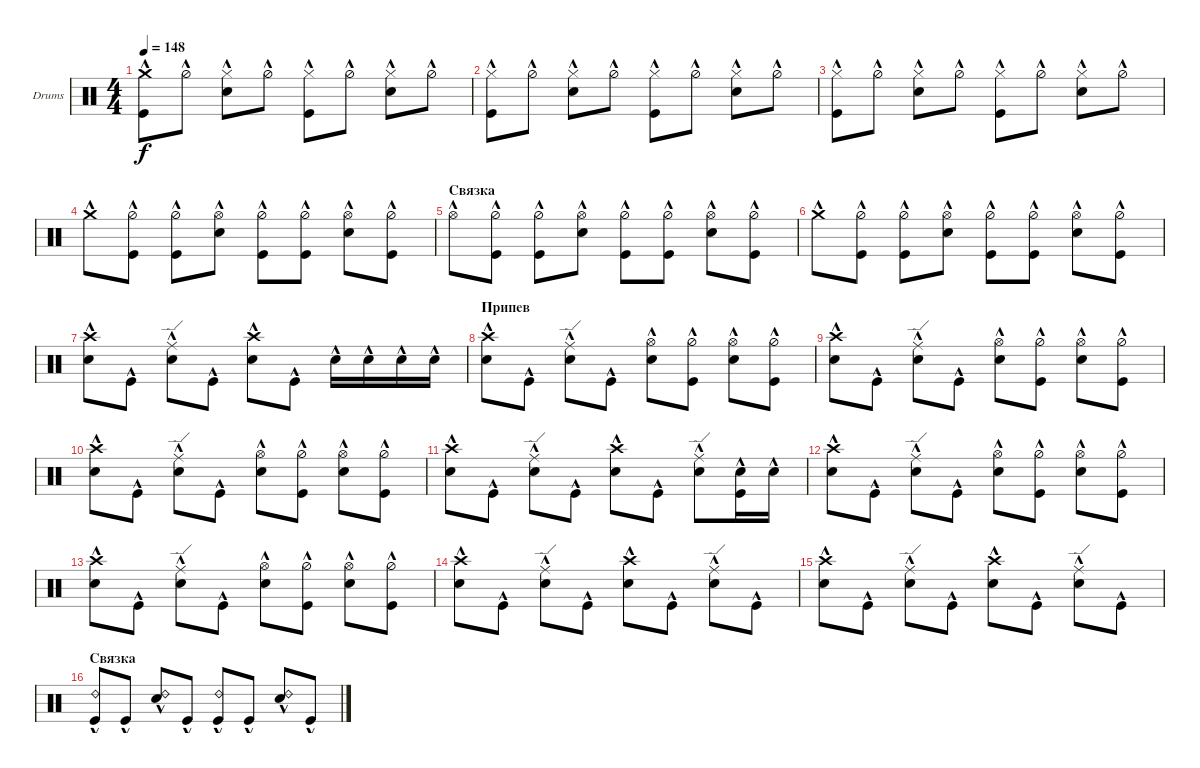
\bracketExtendMode groupsimilarinstruments
\firstSystemTrackNameOrientation horizontal
\otherSystemsTrackNameOrientation horizontal
\track ("Drumkit" "Drums") {instrument percussion}
\staff {score}
\articulation defaults
\ts (4 4)
\tempo 148
\clef neutral
\ks c
("Kick (hit)"{hac} "Crash medium (hit)"{hac}).8{dy f} "Hi-Hat (half)"{hac}.8 ("Snare (hit) 2"{hac} "Hi-Hat (closed)"{hac}).8 "Hi-Hat (half)"{hac}.8 ("Kick (hit)"{hac} "Hi-Hat (closed)"{hac}).8 "Hi-Hat (half)"{hac}.8 ("Snare (hit) 2"{hac} "Hi-Hat (closed)"{hac}).8 "Hi-Hat (half)"{hac}.8 |
("Kick (hit)"{hac} "Hi-Hat (closed)"{hac}).8 "Hi-Hat (half)"{hac}.8 ("Snare (hit) 2"{hac} "Hi-Hat (closed)"{hac}).8 "Hi-Hat (half)"{hac}.8 ("Kick (hit)"{hac} "Hi-Hat (closed)"{hac}).8 "Hi-Hat (half)"{hac}.8 ("Snare (hit) 2"{hac} "Hi-Hat (closed)"{hac}).8 "Hi-Hat (half)"{hac}.8 |
("Kick (hit)"{hac} "Hi-Hat (closed)"{hac}).8 "Hi-Hat (half)"{hac}.8 ("Snare (hit) 2"{hac} "Hi-Hat (closed)"{hac}).8 "Hi-Hat (half)"{hac}.8 ("Kick (hit)"{hac} "Hi-Hat (closed)"{hac}).8 "Hi-Hat (half)"{hac}.8 ("Snare (hit) 2"{hac} "Hi-Hat (closed)"{hac}).8 "Hi-Hat (half)"{hac}.8 |
"Crash medium (hit)"{hac}.8 ("Hi-Hat (half)"{hac} "Kick (hit)"{hac}).8 ("Hi-Hat (half)"{hac} "Kick (hit)"{hac}).8 ("Snare (hit) 2"{hac} "Hi-Hat (open)"{hac}).8 ("Kick (hit)"{hac} "Hi-Hat (half)"{hac}).8 ("Hi-Hat (half)"{hac} "Kick (hit)"{hac}).8 ("Snare (hit) 2"{hac} "Hi-Hat (open)"{hac}).8 ("Hi-Hat (half)"{hac} "Kick (hit)"{hac}).8 |
\section ("" "Связка")
"Hi-Hat (open)"{hac}.8 ("Hi-Hat (half)"{hac} "Kick (hit)"{hac}).8 ("Hi-Hat (half)"{hac} "Kick (hit)"{hac}).8 ("Snare (hit) 2"{hac} "Hi-Hat (open)"{hac}).8 ("Kick (hit)"{hac} "Hi-Hat (half)"{hac}).8 ("Hi-Hat (half)"{hac} "Kick (hit)"{hac}).8 ("Snare (hit) 2"{hac} "Hi-Hat (open)"{hac}).8 ("Hi-Hat (half)"{hac} "Kick (hit)"{hac}).8 |
"Crash medium (hit)"{hac}.8 ("Hi-Hat (half)"{hac} "Kick (hit)"{hac}).8 ("Hi-Hat (half)"{hac} "Kick (hit)"{hac}).8 ("Snare (hit) 2"{hac} "Hi-Hat (open)"{hac}).8 ("Kick (hit)"{hac} "Hi-Hat (half)"{hac}).8 ("Hi-Hat (half)"{hac} "Kick (hit)"{hac}).8 ("Snare (hit) 2"{hac} "Hi-Hat (open)"{hac}).8 ("Hi-Hat (half)"{hac} "Kick (hit)"{hac}).8 |
("Crash high (hit)"{hac} "Snare (hit) 2"{hac}).8 "Kick (hit)"{hac}.8 ("Snare (hit) 2"{hac} "Ride (edge)"{hac}).8 "Kick (hit)"{hac}.8 ("Crash high (hit)"{hac} "Snare (hit) 2"{hac}).8 "Kick (hit)"{hac}.8 "Snare (hit) 2"{hac}.16 "Snare (hit) 2"{hac}.16 "Snare (hit) 2"{hac}.16 "Snare (hit) 2"{hac}.16 |
\section ("" "Припев")
("Snare (hit) 2"{hac} "Crash high (hit)"{hac}).8 "Kick (hit)"{hac}.8 ("Snare (hit) 2"{hac} "Ride (edge)"{hac}).8 "Kick (hit)"{hac}.8 ("Snare (hit) 2"{hac} "Hi-Hat (open)"{hac}).8 ("Kick (hit)"{hac} "Hi-Hat (half)"{hac}).8 ("Snare (hit) 2"{hac} "Hi-Hat (open)"{hac}).8 ("Kick (hit)"{hac} "Hi-Hat (half)"{hac}).8 |
("Snare (hit) 2"{hac} "Crash high (hit)"{hac}).8 "Kick (hit)"{hac}.8 ("Snare (hit) 2"{hac} "Ride (edge)"{hac}).8 "Kick (hit)"{hac}.8 ("Snare (hit) 2"{hac} "Hi-Hat (open)"{hac}).8 ("Kick (hit)"{hac} "Hi-Hat (half)"{hac}).8 ("Snare (hit) 2"{hac} "Hi-Hat (open)"{hac}).8 ("Kick (hit)"{hac} "Hi-Hat (half)"{hac}).8 |
("Snare (hit) 2"{hac} "Crash high (hit)"{hac}).8 "Kick (hit)"{hac}.8 ("Snare (hit) 2"{hac} "Ride (edge)"{hac}).8 "Kick (hit)"{hac}.8 ("Snare (hit) 2"{hac} "Hi-Hat (open)"{hac}).8 ("Kick (hit)"{hac} "Hi-Hat (half)"{hac}).8 ("Snare (hit) 2"{hac} "Hi-Hat (open)"{hac}).8 ("Kick (hit)"{hac} "Hi-Hat (half)"{hac}).8 |
("Snare (hit) 2"{hac} "Crash high (hit)"{hac}).8 "Kick (hit)"{hac}.8 ("Snare (hit) 2"{hac} "Ride (edge)"{hac}).8 "Kick (hit)"{hac}.8 ("Snare (hit) 2"{hac} "Crash high (hit)"{hac}).8 "Kick (hit)"{hac}.8 ("Snare (hit) 2"{hac} "Ride (edge)"{hac}).8 ("Kick (hit)"{hac} "Snare (hit) 2"{hac}).16 "Snare (hit) 2"{hac}.16 |
("Snare (hit) 2"{hac} "Crash high (hit)"{hac}).8 "Kick (hit)"{hac}.8 ("Snare (hit) 2"{hac} "Ride (edge)"{hac}).8 "Kick (hit)"{hac}.8 ("Snare (hit) 2"{hac} "Hi-Hat (open)"{hac}).8 ("Kick (hit)"{hac} "Hi-Hat (half)"{hac}).8 ("Snare (hit) 2"{hac} "Hi-Hat (open)"{hac}).8 ("Kick (hit)"{hac} "Hi-Hat (half)"{hac}).8 |
("Snare (hit) 2"{hac} "Crash high (hit)"{hac}).8 "Kick (hit)"{hac}.8 ("Snare (hit) 2"{hac} "Ride (edge)"{hac}).8 "Kick (hit)"{hac}.8 ("Snare (hit) 2"{hac} "Hi-Hat (open)"{hac}).8 ("Kick (hit)"{hac} "Hi-Hat (half)"{hac}).8 ("Snare (hit) 2"{hac} "Hi-Hat (open)"{hac}).8 ("Kick (hit)"{hac} "Hi-Hat (half)"{hac}).8 |
("Snare (hit) 2"{hac} "Crash high (hit)"{hac}).8 "Kick (hit)"{hac}.8 ("Snare (hit) 2"{hac} "Ride (edge)"{hac}).8 "Kick (hit)"{hac}.8 ("Snare (hit) 2"{hac} "Crash high (hit)"{hac}).8 "Kick (hit)"{hac}.8 ("Snare (hit) 2"{hac} "Ride (edge)"{hac}).8 "Kick (hit)"{hac}.8 |
("Snare (hit) 2"{hac} "Crash high (hit)"{hac}).8 "Kick (hit)"{hac}.8 ("Snare (hit) 2"{hac} "Ride (edge)"{hac}).8 "Kick (hit)"{hac}.8 ("Snare (hit) 2"{hac} "Crash high (hit)"{hac}).8 "Kick (hit)"{hac}.8 ("Snare (hit) 2"{hac} "Ride (edge)"{hac}).8 "Kick (hit)"{hac}.8 |
\section ("" "Связка")
("Ride (bell) 2"{hac} "Kick (hit)"{hac}).8 "Kick (hit)"{hac}.8 ("Snare (hit) 2"{hac} "Ride (bell) 2"{hac}).8 "Kick (hit)"{hac}.8 ("Ride (bell) 2"{hac} "Kick (hit)"{hac}).8 "Kick (hit)"{hac}.8 ("Snare (hit) 2"{hac} "Ride (bell) 2"{hac}).8 "Kick (hit)"{hac}.8
